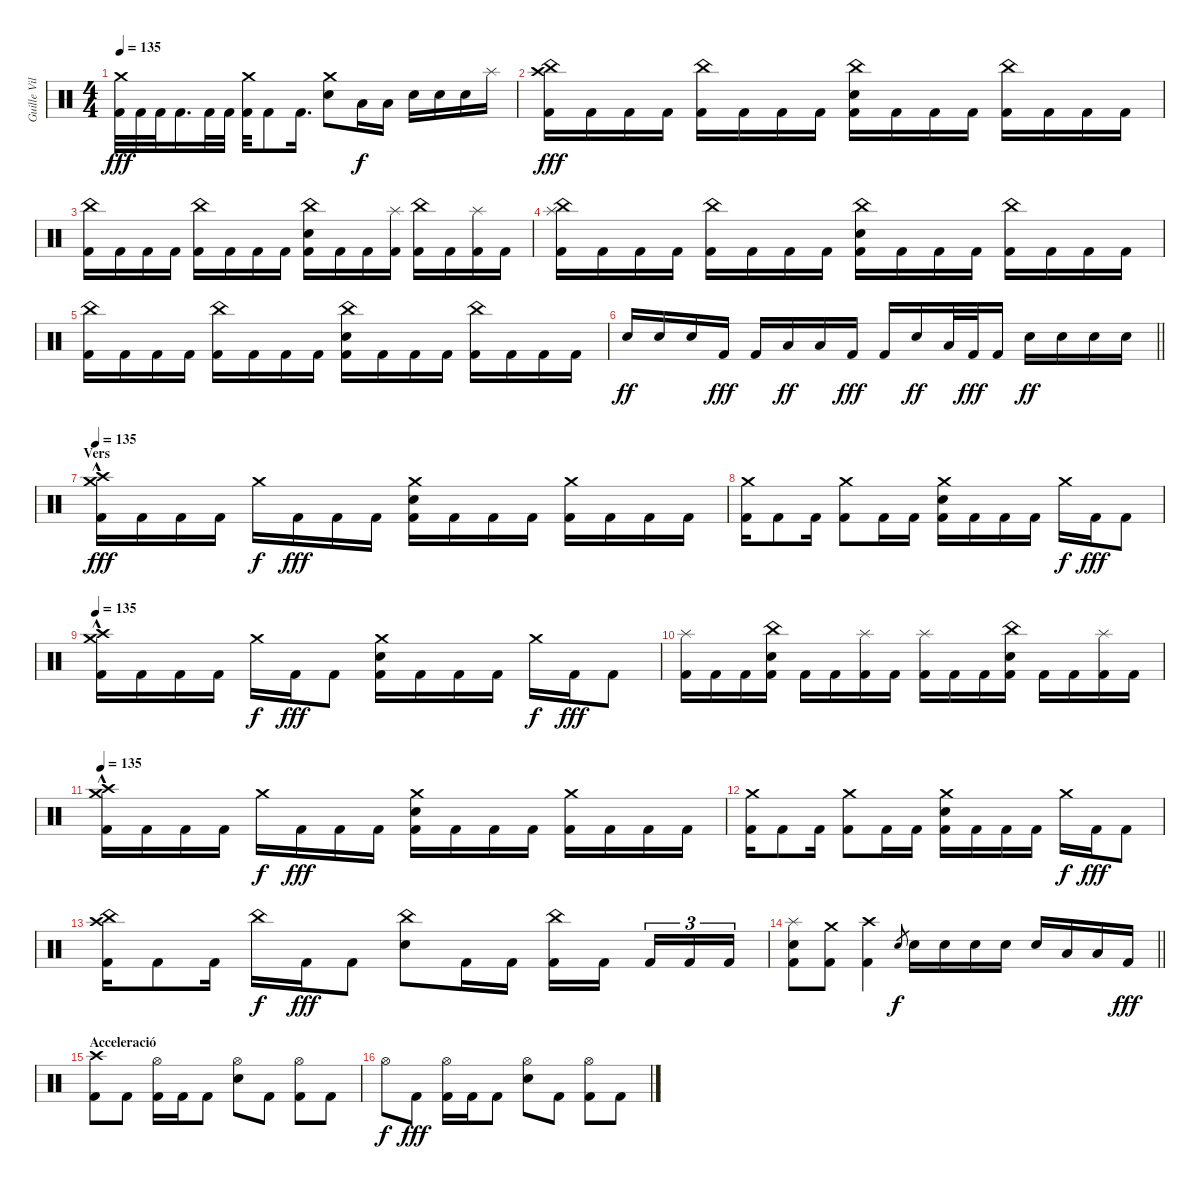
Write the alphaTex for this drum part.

\track ("Guille Vila" "Guille Vil") {instrument percussion}
\staff {score}
\articulation defaults
\ts (4 4)
\tempo 135
\clef neutral
\ks c
("Crash medium (hit)" "Kick (hit) 2").32{dy fff} "Kick (hit) 2".32 "Kick (hit) 2".32 "Kick (hit) 2".16{d} "Kick (hit) 2".32 "Kick (hit) 2".32 ("Crash medium (hit)" "Kick (hit) 2").32 "Kick (hit) 2".8 "Kick (hit) 2".16{d} ("Crash medium (hit)" "Snare (hit) 2").8 "Low Tom (hit)".16{dy f} "Low Tom (hit)".16 "Snare (hit) 2".16 "Snare (hit) 2".16 "Snare (hit) 2".16 "Splash (hit)".16 |
("China (hit)" "Crash high (hit)" "Kick (hit) 2").16{dy fff} "Kick (hit) 2".16 "Kick (hit) 2".16 "Kick (hit) 2".16 ("China (hit)" "Kick (hit) 2").16 "Kick (hit) 2".16 "Kick (hit) 2".16 "Kick (hit) 2".16 ("China (hit)" "Snare (hit) 2" "Kick (hit) 2").16 "Kick (hit) 2".16 "Kick (hit) 2".16 "Kick (hit) 2".16 ("China (hit)" "Kick (hit) 2").16 "Kick (hit) 2".16 "Kick (hit) 2".16 "Kick (hit) 2".16 |
("China (hit)" "Kick (hit) 2").16 "Kick (hit) 2".16 "Kick (hit) 2".16 "Kick (hit) 2".16 ("China (hit)" "Kick (hit) 2").16 "Kick (hit) 2".16 "Kick (hit) 2".16 "Kick (hit) 2".16 ("China (hit)" "Snare (hit) 2" "Kick (hit) 2").16 "Kick (hit) 2".16 "Kick (hit) 2".16 ("Splash (hit)" "Kick (hit) 2").16 ("China (hit)" "Kick (hit) 2").16 "Kick (hit) 2".16 ("Splash (hit)" "Kick (hit) 2").16 "Kick (hit) 2".16 |
("China (hit)" "Splash (hit)" "Kick (hit) 2").16 "Kick (hit) 2".16 "Kick (hit) 2".16 "Kick (hit) 2".16 ("China (hit)" "Kick (hit) 2").16 "Kick (hit) 2".16 "Kick (hit) 2".16 "Kick (hit) 2".16 ("China (hit)" "Snare (hit) 2" "Kick (hit) 2").16 "Kick (hit) 2".16 "Kick (hit) 2".16 "Kick (hit) 2".16 ("China (hit)" "Kick (hit) 2").16 "Kick (hit) 2".16 "Kick (hit) 2".16 "Kick (hit) 2".16 |
("China (hit)" "Kick (hit) 2").16 "Kick (hit) 2".16 "Kick (hit) 2".16 "Kick (hit) 2".16 ("China (hit)" "Kick (hit) 2").16 "Kick (hit) 2".16 "Kick (hit) 2".16 "Kick (hit) 2".16 ("China (hit)" "Snare (hit) 2" "Kick (hit) 2").16 "Kick (hit) 2".16 "Kick (hit) 2".16 "Kick (hit) 2".16 ("China (hit)" "Kick (hit) 2").16 "Kick (hit) 2".16 "Kick (hit) 2".16 "Kick (hit) 2".16 |
\barLineRight lightlight "Snare (hit) 2".16{dy ff} "Snare (hit) 2".16 "Snare (hit) 2".16 "Kick (hit) 2".16{dy fff} "Kick (hit) 2".16 "Low Tom (hit)".16{dy ff} "Low Tom (hit)".16 "Kick (hit) 2".16{dy fff} "Kick (hit) 2".16 "Snare (hit) 2".16{dy ff} "Low Tom (hit)".32 "Kick (hit) 2".32{dy fff} "Kick (hit) 2".16 "Snare (hit) 2".16{dy ff} "Snare (hit) 2".16 "Snare (hit) 2".16 "Snare (hit) 2".16
|
\section ("" "Vers")
\tempo 135
("Crash high (hit)" "Crash medium (hit)" "Kick (hit) 2"{hac}).16{dy fff} "Kick (hit) 2".16 "Kick (hit) 2".16 "Kick (hit) 2".16 "Crash medium (hit)".16{dy f} "Kick (hit) 2".16{dy fff} "Kick (hit) 2".16 "Kick (hit) 2".16 ("Crash medium (hit)" "Snare (hit) 2" "Kick (hit) 2").16 "Kick (hit) 2".16 "Kick (hit) 2".16 "Kick (hit) 2".16 ("Crash medium (hit)" "Kick (hit) 2").16 "Kick (hit) 2".16 "Kick (hit) 2".16 "Kick (hit) 2".16 |
("Crash medium (hit)" "Kick (hit) 2").16 "Kick (hit) 2".8 "Kick (hit) 2".16 ("Crash medium (hit)" "Kick (hit) 2").8 "Kick (hit) 2".16 "Kick (hit) 2".16 ("Crash medium (hit)" "Snare (hit) 2" "Kick (hit) 2").16 "Kick (hit) 2".16 "Kick (hit) 2".16 "Kick (hit) 2".16 "Crash medium (hit)".16{dy f} "Kick (hit) 2".16{dy fff} "Kick (hit) 2".8 |
\tempo 135
("Crash high (hit)" "Crash medium (hit)" "Kick (hit) 2"{hac}).16 "Kick (hit) 2".16 "Kick (hit) 2".16 "Kick (hit) 2".16 "Crash medium (hit)".16{dy f} "Kick (hit) 2".16{dy fff} "Kick (hit) 2".8 ("Crash medium (hit)" "Snare (hit) 2" "Kick (hit) 2").16 "Kick (hit) 2".16 "Kick (hit) 2".16 "Kick (hit) 2".16 "Crash medium (hit)".16{dy f} "Kick (hit) 2".16{dy fff} "Kick (hit) 2".8 |
("Splash (hit)" "Kick (hit) 2").16 "Kick (hit) 2".16 "Kick (hit) 2".16 ("China (hit)" "Snare (hit) 2" "Kick (hit) 2").16 "Kick (hit) 2".16 "Kick (hit) 2".16 ("Splash (hit)" "Kick (hit) 2").16 "Kick (hit) 2".16 ("Splash (hit)" "Kick (hit) 2").16 "Kick (hit) 2".16 "Kick (hit) 2".16 ("China (hit)" "Snare (hit) 2" "Kick (hit) 2").16 "Kick (hit) 2".16 "Kick (hit) 2".16 ("Splash (hit)" "Kick (hit) 2").16 "Kick (hit) 2".16 |
\tempo 135
("Crash high (hit)" "Crash medium (hit)" "Kick (hit) 2"{hac}).16 "Kick (hit) 2".16 "Kick (hit) 2".16 "Kick (hit) 2".16 "Crash medium (hit)".16{dy f} "Kick (hit) 2".16{dy fff} "Kick (hit) 2".16 "Kick (hit) 2".16 ("Crash medium (hit)" "Snare (hit) 2" "Kick (hit) 2").16 "Kick (hit) 2".16 "Kick (hit) 2".16 "Kick (hit) 2".16 ("Crash medium (hit)" "Kick (hit) 2").16 "Kick (hit) 2".16 "Kick (hit) 2".16 "Kick (hit) 2".16 |
("Crash medium (hit)" "Kick (hit) 2").16 "Kick (hit) 2".8 "Kick (hit) 2".16 ("Crash medium (hit)" "Kick (hit) 2").8 "Kick (hit) 2".16 "Kick (hit) 2".16 ("Crash medium (hit)" "Snare (hit) 2" "Kick (hit) 2").16 "Kick (hit) 2".16 "Kick (hit) 2".16 "Kick (hit) 2".16 "Crash medium (hit)".16{dy f} "Kick (hit) 2".16{dy fff} "Kick (hit) 2".8 |
("China (hit)" "Crash high (hit)" "Kick (hit) 2").16 "Kick (hit) 2".8 "Kick (hit) 2".16 "China (hit)".16{dy f} "Kick (hit) 2".16{dy fff} "Kick (hit) 2".8 ("China (hit)" "Snare (hit) 2").8 "Kick (hit) 2".16 "Kick (hit) 2".16 ("China (hit)" "Kick (hit) 2").16 "Kick (hit) 2".16{beam splitsecondary} "Kick (hit) 2".16{tu (3 2)} "Kick (hit) 2".16{tu (3 2)} "Kick (hit) 2".16{tu (3 2)} |
\barLineRight lightlight
("Splash (hit)" "Snare (hit) 2" "Kick (hit) 2").8 ("Crash medium (hit)" "Kick (hit) 2").8 ("Crash high (hit)" "Kick (hit) 2").4 "Snare (hit) 2".8{gr dy f} "Snare (hit) 2".16 "Snare (hit) 2".16 "Snare (hit) 2".16 "Snare (hit) 2".16 "Snare (hit) 2".16 "Low Tom (hit)".16 "Low Tom (hit)".16 "Kick (hit) 2".16{dy fff} |
\section ("" "Acceleració")
("Crash high (hit)" "Kick (hit) 2").8 "Kick (hit) 2".8 ("Hi-Hat (open)" "Kick (hit) 2").16 "Kick (hit) 2".16 "Kick (hit) 2".8 ("Hi-Hat (open)" "Snare (hit) 2").8 "Kick (hit) 2".8 ("Hi-Hat (open)" "Kick (hit) 2").8 "Kick (hit) 2".8 |
"Hi-Hat (open)".8{dy f} "Kick (hit) 2".8{dy fff} ("Hi-Hat (open)" "Kick (hit) 2").16 "Kick (hit) 2".16 "Kick (hit) 2".8 ("Hi-Hat (open)" "Snare (hit) 2").8 "Kick (hit) 2".8 ("Hi-Hat (open)" "Kick (hit) 2").8 "Kick (hit) 2".8
